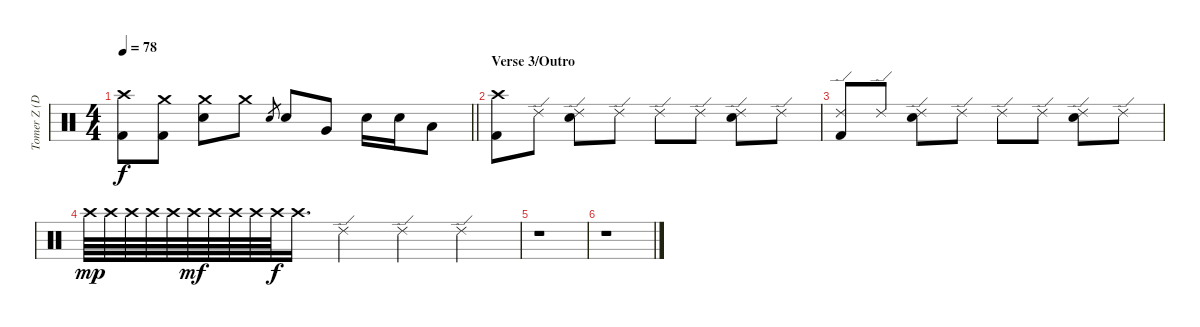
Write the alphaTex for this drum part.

\track ("Tomer Z (Drums)" "Tomer Z (D") {instrument percussion}
\staff {score}
\articulation defaults
\ts (4 4)
\tempo 78
\clef neutral
\barLineRight lightlight
\ks c
("Crash high (hit)" "Kick (hit) 2").8{dy f} ("Crash medium (hit)" "Kick (hit) 2").8 ("Crash medium (hit)" "Snare (hit) 2").8 "Crash medium (hit)".8 "Snare (hit) 2".8{gr} "Snare (hit) 2".8 "Very Low Tom (hit)".8 "Snare (hit) 2".16 "Snare (hit) 2".16 "Low Floor Tom (hit)".8 |
\section ("" "Verse 3/Outro")
("Crash high (hit)" "Kick (hit) 2").8 "Ride (edge) 2".8 ("Ride (edge) 2" "Snare (hit) 2").8 "Ride (edge) 2".8 "Ride (edge) 2".8 "Ride (edge) 2".8 ("Ride (edge) 2" "Snare (hit) 2").8 "Ride (edge) 2".8 |
("Ride (edge) 2" "Kick (hit) 2").8 "Ride (edge) 2".8 ("Ride (edge) 2" "Snare (hit) 2").8 "Ride (edge) 2".8 "Ride (edge) 2".8 "Ride (edge) 2".8 ("Ride (edge) 2" "Snare (hit) 2").8 "Ride (edge) 2".8 |
"Crash high (hit)".64{dy mp} "Crash high (hit)".64 "Crash high (hit)".64 "Crash high (hit)".64 "Crash high (hit)".64 "Crash high (hit)".64{dy mf} "Crash high (hit)".64 "Crash high (hit)".64 "Crash high (hit)".64 "Crash high (hit)".64{dy f} "Crash high (hit)".16{d} "Ride (edge) 2".4 "Ride (edge) 2".4 "Ride (edge) 2".4 |
r.1 |
r.1
